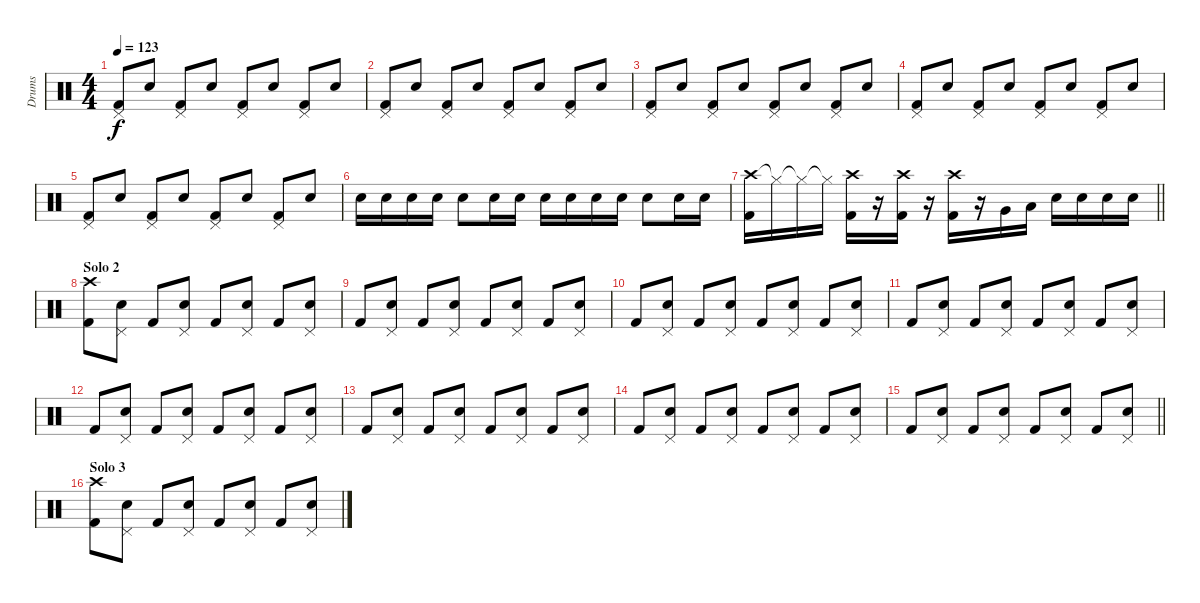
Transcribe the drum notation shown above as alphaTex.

\track ("Drums" "Drums") {instrument percussion}
\staff {score}
\articulation defaults
\ts (4 4)
\tempo 123
\clef neutral
\ks c
("Pedal Hi-Hat (hit)" "Kick (hit) 2").8{dy f} "Snare (hit) 2".8 ("Pedal Hi-Hat (hit)" "Kick (hit) 2").8 "Snare (hit) 2".8 ("Pedal Hi-Hat (hit)" "Kick (hit) 2").8 "Snare (hit) 2".8 ("Pedal Hi-Hat (hit)" "Kick (hit) 2").8 "Snare (hit) 2".8 |
("Pedal Hi-Hat (hit)" "Kick (hit) 2").8 "Snare (hit) 2".8 ("Pedal Hi-Hat (hit)" "Kick (hit) 2").8 "Snare (hit) 2".8 ("Pedal Hi-Hat (hit)" "Kick (hit) 2").8 "Snare (hit) 2".8 ("Pedal Hi-Hat (hit)" "Kick (hit) 2").8 "Snare (hit) 2".8 |
("Pedal Hi-Hat (hit)" "Kick (hit) 2").8 "Snare (hit) 2".8 ("Pedal Hi-Hat (hit)" "Kick (hit) 2").8 "Snare (hit) 2".8 ("Pedal Hi-Hat (hit)" "Kick (hit) 2").8 "Snare (hit) 2".8 ("Pedal Hi-Hat (hit)" "Kick (hit) 2").8 "Snare (hit) 2".8 |
("Pedal Hi-Hat (hit)" "Kick (hit) 2").8 "Snare (hit) 2".8 ("Pedal Hi-Hat (hit)" "Kick (hit) 2").8 "Snare (hit) 2".8 ("Pedal Hi-Hat (hit)" "Kick (hit) 2").8 "Snare (hit) 2".8 ("Pedal Hi-Hat (hit)" "Kick (hit) 2").8 "Snare (hit) 2".8 |
("Pedal Hi-Hat (hit)" "Kick (hit) 2").8 "Snare (hit) 2".8 ("Pedal Hi-Hat (hit)" "Kick (hit) 2").8 "Snare (hit) 2".8 ("Pedal Hi-Hat (hit)" "Kick (hit) 2").8 "Snare (hit) 2".8 ("Pedal Hi-Hat (hit)" "Kick (hit) 2").8 "Snare (hit) 2".8 |
"Snare (hit) 2".16 "Snare (hit) 2".16 "Snare (hit) 2".16 "Snare (hit) 2".16 "Snare (hit) 2".8 "Snare (hit) 2".16 "Snare (hit) 2".16 "Snare (hit) 2".16 "Snare (hit) 2".16 "Snare (hit) 2".16 "Snare (hit) 2".16 "Snare (hit) 2".8 "Snare (hit) 2".16 "Snare (hit) 2".16 |
\barLineRight lightlight
("Crash high (hit)" "Kick (hit) 2").16 "Hi-Hat (closed)"{t}.16 "Hi-Hat (closed)"{t}.16 "Hi-Hat (closed)"{t}.16 ("Crash high (hit)" "Kick (hit) 2").16 r.16 ("Crash high (hit)" "Kick (hit) 2").16 r.16 ("Crash high (hit)" "Kick (hit) 2").16 r.16 "Very Low Tom (hit)".16 "Low Floor Tom (hit)".16 "Snare (hit) 2".16 "Snare (hit) 2".16 "Snare (hit) 2".16 "Snare (hit) 2".16 |
\section ("" "Solo 2")
("Crash high (hit)" "Kick (hit) 2").8 ("Pedal Hi-Hat (hit)" "Snare (hit) 2").8 "Kick (hit) 2".8 ("Pedal Hi-Hat (hit)" "Snare (hit) 2").8 "Kick (hit) 2".8 ("Pedal Hi-Hat (hit)" "Snare (hit) 2").8 "Kick (hit) 2".8 ("Pedal Hi-Hat (hit)" "Snare (hit) 2").8 |
"Kick (hit) 2".8 ("Pedal Hi-Hat (hit)" "Snare (hit) 2").8 "Kick (hit) 2".8 ("Pedal Hi-Hat (hit)" "Snare (hit) 2").8 "Kick (hit) 2".8 ("Pedal Hi-Hat (hit)" "Snare (hit) 2").8 "Kick (hit) 2".8 ("Pedal Hi-Hat (hit)" "Snare (hit) 2").8 |
"Kick (hit) 2".8 ("Pedal Hi-Hat (hit)" "Snare (hit) 2").8 "Kick (hit) 2".8 ("Pedal Hi-Hat (hit)" "Snare (hit) 2").8 "Kick (hit) 2".8 ("Pedal Hi-Hat (hit)" "Snare (hit) 2").8 "Kick (hit) 2".8 ("Pedal Hi-Hat (hit)" "Snare (hit) 2").8 |
"Kick (hit) 2".8 ("Pedal Hi-Hat (hit)" "Snare (hit) 2").8 "Kick (hit) 2".8 ("Pedal Hi-Hat (hit)" "Snare (hit) 2").8 "Kick (hit) 2".8 ("Pedal Hi-Hat (hit)" "Snare (hit) 2").8 "Kick (hit) 2".8 ("Pedal Hi-Hat (hit)" "Snare (hit) 2").8 |
"Kick (hit) 2".8 ("Pedal Hi-Hat (hit)" "Snare (hit) 2").8 "Kick (hit) 2".8 ("Pedal Hi-Hat (hit)" "Snare (hit) 2").8 "Kick (hit) 2".8 ("Pedal Hi-Hat (hit)" "Snare (hit) 2").8 "Kick (hit) 2".8 ("Pedal Hi-Hat (hit)" "Snare (hit) 2").8 |
"Kick (hit) 2".8 ("Pedal Hi-Hat (hit)" "Snare (hit) 2").8 "Kick (hit) 2".8 ("Pedal Hi-Hat (hit)" "Snare (hit) 2").8 "Kick (hit) 2".8 ("Pedal Hi-Hat (hit)" "Snare (hit) 2").8 "Kick (hit) 2".8 ("Pedal Hi-Hat (hit)" "Snare (hit) 2").8 |
"Kick (hit) 2".8 ("Pedal Hi-Hat (hit)" "Snare (hit) 2").8 "Kick (hit) 2".8 ("Pedal Hi-Hat (hit)" "Snare (hit) 2").8 "Kick (hit) 2".8 ("Pedal Hi-Hat (hit)" "Snare (hit) 2").8 "Kick (hit) 2".8 ("Pedal Hi-Hat (hit)" "Snare (hit) 2").8 |
\barLineRight lightlight "Kick (hit) 2".8
("Pedal Hi-Hat (hit)" "Snare (hit) 2").8 "Kick (hit) 2".8 ("Pedal Hi-Hat (hit)" "Snare (hit) 2").8 "Kick (hit) 2".8 ("Pedal Hi-Hat (hit)" "Snare (hit) 2").8 "Kick (hit) 2".8 ("Pedal Hi-Hat (hit)" "Snare (hit) 2").8 |
\section ("" "Solo 3")
("Crash high (hit)" "Kick (hit) 2").8 ("Pedal Hi-Hat (hit)" "Snare (hit) 2").8 "Kick (hit) 2".8 ("Pedal Hi-Hat (hit)" "Snare (hit) 2").8 "Kick (hit) 2".8 ("Pedal Hi-Hat (hit)" "Snare (hit) 2").8 "Kick (hit) 2".8 ("Pedal Hi-Hat (hit)" "Snare (hit) 2").8
